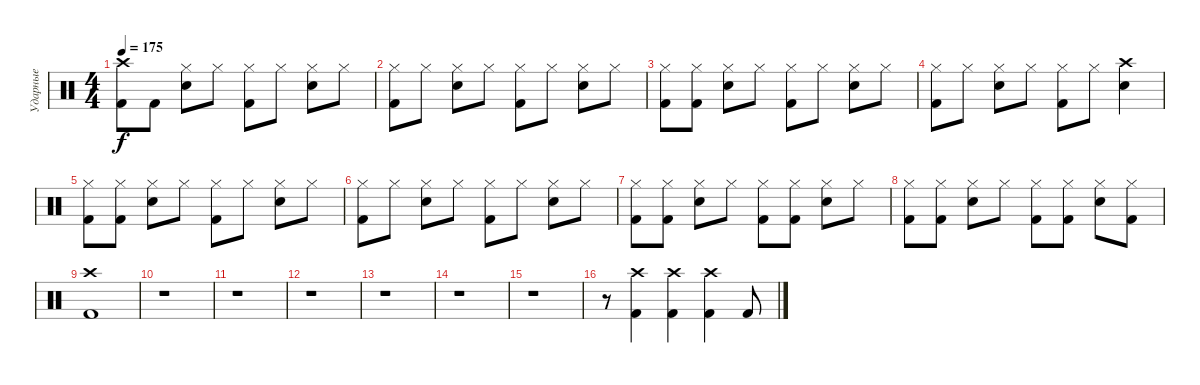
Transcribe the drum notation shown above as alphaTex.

\track ("Ударные" "Ударные") {instrument percussion}
\staff
\articulation defaults
\ts (4 4)
\tempo 175
\clef neutral
\ks c
("Kick (hit) 2" "Crash high (hit)").8{dy f} "Kick (hit) 2".8 ("Snare (hit) 2" "Hi-Hat (closed)").8 "Hi-Hat (closed)".8 ("Kick (hit) 2" "Hi-Hat (closed)").8 "Hi-Hat (closed)".8 ("Snare (hit) 2" "Hi-Hat (closed)").8 "Hi-Hat (closed)".8 |
("Kick (hit) 2" "Hi-Hat (closed)").8 "Hi-Hat (closed)".8 ("Snare (hit) 2" "Hi-Hat (closed)").8 "Hi-Hat (closed)".8 ("Kick (hit) 2" "Hi-Hat (closed)").8 "Hi-Hat (closed)".8 ("Snare (hit) 2" "Hi-Hat (closed)").8 "Hi-Hat (closed)".8 |
("Kick (hit) 2" "Hi-Hat (closed)").8 ("Kick (hit) 2" "Hi-Hat (closed)").8 ("Snare (hit) 2" "Hi-Hat (closed)").8 "Hi-Hat (closed)".8 ("Kick (hit) 2" "Hi-Hat (closed)").8 "Hi-Hat (closed)".8 ("Snare (hit) 2" "Hi-Hat (closed)").8 "Hi-Hat (closed)".8 |
("Kick (hit) 2" "Hi-Hat (closed)").8 "Hi-Hat (closed)".8 ("Snare (hit) 2" "Hi-Hat (closed)").8 "Hi-Hat (closed)".8 ("Kick (hit) 2" "Hi-Hat (closed)").8 "Hi-Hat (closed)".8 ("Snare (hit) 2" "Crash high (hit)").4 |
("Kick (hit) 2" "Hi-Hat (closed)").8 ("Kick (hit) 2" "Hi-Hat (closed)").8 ("Snare (hit) 2" "Hi-Hat (closed)").8 "Hi-Hat (closed)".8 ("Kick (hit) 2" "Hi-Hat (closed)").8 "Hi-Hat (closed)".8 ("Snare (hit) 2" "Hi-Hat (closed)").8 "Hi-Hat (closed)".8 |
("Kick (hit) 2" "Hi-Hat (closed)").8 "Hi-Hat (closed)".8 ("Snare (hit) 2" "Hi-Hat (closed)").8 "Hi-Hat (closed)".8 ("Kick (hit) 2" "Hi-Hat (closed)").8 "Hi-Hat (closed)".8 ("Snare (hit) 2" "Hi-Hat (closed)").8 "Hi-Hat (closed)".8 |
("Kick (hit) 2" "Hi-Hat (closed)").8 ("Kick (hit) 2" "Hi-Hat (closed)").8 ("Snare (hit) 2" "Hi-Hat (closed)").8 "Hi-Hat (closed)".8 ("Kick (hit) 2" "Hi-Hat (closed)").8 ("Kick (hit) 2" "Hi-Hat (closed)").8 ("Snare (hit) 2" "Hi-Hat (closed)").8 "Hi-Hat (closed)".8 |
("Kick (hit) 2" "Hi-Hat (closed)").8 ("Kick (hit) 2" "Hi-Hat (closed)").8 ("Snare (hit) 2" "Hi-Hat (closed)").8 "Hi-Hat (closed)".8 ("Kick (hit) 2" "Hi-Hat (closed)").8 ("Kick (hit) 2" "Hi-Hat (closed)").8 ("Snare (hit) 2" "Hi-Hat (closed)").8 ("Kick (hit) 2" "Hi-Hat (closed)").8 |
("Kick (hit) 2" "Crash high (hit)").1 |
r.1 |
r.1 |
r.1 |
r.1 |
r.1 |
r.1 |
r.8 ("Kick (hit) 2" "Crash high (hit)").4 ("Kick (hit) 2" "Crash high (hit)").4 ("Kick (hit) 2" "Crash high (hit)").4 "Kick (hit) 2".8
